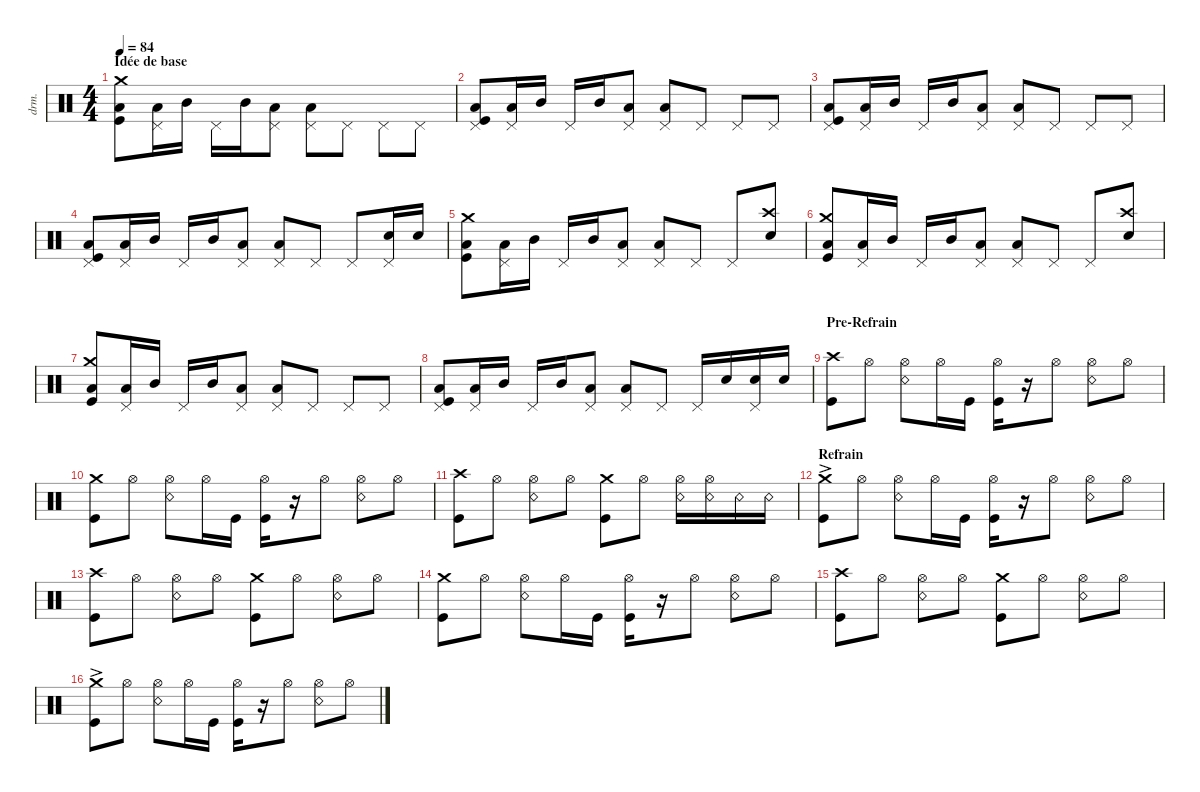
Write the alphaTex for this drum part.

\defaultSystemsLayout 4
\hideDynamics
\bracketExtendMode nobrackets
\otherSystemsTrackNameOrientation horizontal
\track ("Drumkit" "drm.") {instrument percussion}
\staff {score}
\articulation defaults
\ts (4 4)
\section ("" "Idée de base")
\tempo 84
\clef neutral
\ks aminor
("Kick (hit)" "Low Tom (hit)" "Crash medium (hit)").8{dy f beam Down} ("Low Tom (hit)" "Pedal Hi-Hat (hit)").16{beam Down} "Mid Tom (hit)".16{beam Down} "Pedal Hi-Hat (hit)".16{beam Down} "Mid Tom (hit)".16{beam Down} ("Low Tom (hit)" "Pedal Hi-Hat (hit)").8{beam Down} ("Low Tom (hit)" "Pedal Hi-Hat (hit)").8{beam Down} "Pedal Hi-Hat (hit)".8{beam Down} "Pedal Hi-Hat (hit)".8{beam Down} "Pedal Hi-Hat (hit)".8{beam Down} |
("Kick (hit)" "Low Tom (hit)" "Pedal Hi-Hat (hit)").8{beam Up} ("Low Tom (hit)" "Pedal Hi-Hat (hit)").16{beam Up} "Mid Tom (hit)".16{beam Up} "Pedal Hi-Hat (hit)".16{beam Up} "Mid Tom (hit)".16{beam Up} ("Low Tom (hit)" "Pedal Hi-Hat (hit)").8{beam Up} ("Low Tom (hit)" "Pedal Hi-Hat (hit)").8{beam Up} "Pedal Hi-Hat (hit)".8{beam Up} "Pedal Hi-Hat (hit)".8{beam Up} "Pedal Hi-Hat (hit)".8{beam Up} |
("Kick (hit)" "Low Tom (hit)" "Pedal Hi-Hat (hit)").8{beam Up} ("Low Tom (hit)" "Pedal Hi-Hat (hit)").16{beam Up} "Mid Tom (hit)".16{beam Up} "Pedal Hi-Hat (hit)".16{beam Up} "Mid Tom (hit)".16{beam Up} ("Low Tom (hit)" "Pedal Hi-Hat (hit)").8{beam Up} ("Low Tom (hit)" "Pedal Hi-Hat (hit)").8{beam Up} "Pedal Hi-Hat (hit)".8{beam Up} "Pedal Hi-Hat (hit)".8{beam Up} "Pedal Hi-Hat (hit)".8{beam Up} |
("Kick (hit)" "Low Tom (hit)" "Pedal Hi-Hat (hit)").8{beam Up} ("Low Tom (hit)" "Pedal Hi-Hat (hit)").16{beam Up} "Mid Tom (hit)".16{beam Up} "Pedal Hi-Hat (hit)".16{beam Up} "Mid Tom (hit)".16{beam Up} ("Low Tom (hit)" "Pedal Hi-Hat (hit)").8{beam Up} ("Low Tom (hit)" "Pedal Hi-Hat (hit)").8{beam Up} "Pedal Hi-Hat (hit)".8{beam Up} "Pedal Hi-Hat (hit)".8{beam Up} ("Pedal Hi-Hat (hit)" "Snare (hit) 2").16{beam Up} "Snare (hit) 2".16{beam Up} |
("Kick (hit)" "Low Tom (hit)" "Crash medium (hit)").8{beam Down} ("Low Tom (hit)" "Pedal Hi-Hat (hit)").16{beam Down} "Mid Tom (hit)".16{beam Down} "Pedal Hi-Hat (hit)".16{beam Up} "Mid Tom (hit)".16{beam Up} ("Low Tom (hit)" "Pedal Hi-Hat (hit)").8{beam Up} ("Low Tom (hit)" "Pedal Hi-Hat (hit)").8{beam Up} "Pedal Hi-Hat (hit)".8{beam Up} "Pedal Hi-Hat (hit)".8{beam Up} ("Crash high (hit)" "Snare (hit) 2").8{beam Up} |
("Kick (hit)" "Low Tom (hit)" "Crash medium (hit)").8{beam Up} ("Low Tom (hit)" "Pedal Hi-Hat (hit)").16{beam Up} "Mid Tom (hit)".16{beam Up} "Pedal Hi-Hat (hit)".16{beam Up} "Mid Tom (hit)".16{beam Up} ("Low Tom (hit)" "Pedal Hi-Hat (hit)").8{beam Up} ("Low Tom (hit)" "Pedal Hi-Hat (hit)").8{beam Up} "Pedal Hi-Hat (hit)".8{beam Up} "Pedal Hi-Hat (hit)".8{beam Up} ("Crash high (hit)" "Snare (hit) 2").8{beam Up} |
("Kick (hit)" "Low Tom (hit)" "Crash medium (hit)").8{beam Up} ("Low Tom (hit)" "Pedal Hi-Hat (hit)").16{beam Up} "Mid Tom (hit)".16{beam Up} "Pedal Hi-Hat (hit)".16{beam Up} "Mid Tom (hit)".16{beam Up} ("Low Tom (hit)" "Pedal Hi-Hat (hit)").8{beam Up} ("Low Tom (hit)" "Pedal Hi-Hat (hit)").8{beam Up} "Pedal Hi-Hat (hit)".8{beam Up} "Pedal Hi-Hat (hit)".8{beam Up} "Pedal Hi-Hat (hit)".8{beam Up} |
("Kick (hit)" "Low Tom (hit)" "Pedal Hi-Hat (hit)").8{beam Up} ("Low Tom (hit)" "Pedal Hi-Hat (hit)").16{beam Up} "Mid Tom (hit)".16{beam Up} "Pedal Hi-Hat (hit)".16{beam Up} "Mid Tom (hit)".16{beam Up} ("Low Tom (hit)" "Pedal Hi-Hat (hit)").8{beam Up} ("Low Tom (hit)" "Pedal Hi-Hat (hit)").8{beam Up} "Pedal Hi-Hat (hit)".8{beam Up} "Pedal Hi-Hat (hit)".16{beam Up} "Snare (hit) 2".16{beam Up} ("Pedal Hi-Hat (hit)" "Snare (hit) 2").16{beam Up} "Snare (hit) 2".16{beam Up} |
\section ("" "Pre-Refrain")
("Kick (hit)" "Crash high (hit)").8{beam Down} "Hi-Hat (open)".8{beam Down} ("Hi-Hat (open)" "Snare (rim shot)").8{beam Down} "Hi-Hat (open)".16{beam Down} "Kick (hit)".16{beam Down} ("Hi-Hat (open)" "Kick (hit)").16{beam Down} r.16{beam Down} "Hi-Hat (open)".8{beam Down} ("Hi-Hat (open)" "Snare (rim shot)").8{beam Down} "Hi-Hat (open)".8{beam Down} |
("Kick (hit)" "Crash medium (hit)").8{beam Down} "Hi-Hat (open)".8{beam Down} ("Hi-Hat (open)" "Snare (rim shot)").8{beam Down} "Hi-Hat (open)".16{beam Down} "Kick (hit)".16{beam Down} ("Hi-Hat (open)" "Kick (hit)").16{beam Down} r.16{beam Down} "Hi-Hat (open)".8{beam Down} ("Hi-Hat (open)" "Snare (rim shot)").8{beam Down} "Hi-Hat (open)".8{beam Down} |
("Kick (hit)" "Crash high (hit)").8{beam Down} "Hi-Hat (open)".8{beam Down} ("Snare (rim shot)" "Hi-Hat (open)").8{beam Down} "Hi-Hat (open)".8{beam Down} ("Crash medium (hit)" "Kick (hit)").8{beam Down} "Hi-Hat (open)".8{beam Down} ("Hi-Hat (open)" "Snare (rim shot)").16{beam Down} ("Hi-Hat (open)" "Snare (rim shot)").16{beam Down} "Snare (rim shot)".16{beam Down} "Snare (rim shot)".16{beam Down} |
\section ("" "Refrain")
("Kick (hit)" "Crash medium (hit)"{ac}).8{beam Down} "Hi-Hat (open)".8{beam Down} ("Hi-Hat (open)" "Snare (rim shot)").8{beam Down} "Hi-Hat (open)".16{beam Down} "Kick (hit)".16{beam Down} ("Hi-Hat (open)" "Kick (hit)").16{beam Down} r.16{beam Down} "Hi-Hat (open)".8{beam Down} ("Hi-Hat (open)" "Snare (rim shot)").8{beam Down} "Hi-Hat (open)".8{beam Down} |
("Kick (hit)" "Crash high (hit)").8{beam Down} "Hi-Hat (open)".8{beam Down} ("Snare (rim shot)" "Hi-Hat (open)").8{beam Down} "Hi-Hat (open)".8{beam Down} ("Crash medium (hit)" "Kick (hit)").8{beam Down} "Hi-Hat (open)".8{beam Down} ("Hi-Hat (open)" "Snare (rim shot)").8{beam Down} "Hi-Hat (open)".8{beam Down} |
("Kick (hit)" "Crash medium (hit)").8{beam Down} "Hi-Hat (open)".8{beam Down} ("Hi-Hat (open)" "Snare (rim shot)").8{beam Down} "Hi-Hat (open)".16{beam Down} "Kick (hit)".16{beam Down} ("Hi-Hat (open)" "Kick (hit)").16{beam Down} r.16{beam Down} "Hi-Hat (open)".8{beam Down} ("Hi-Hat (open)" "Snare (rim shot)").8{beam Down} "Hi-Hat (open)".8{beam Down} |
("Kick (hit)" "Crash high (hit)").8{beam Down} "Hi-Hat (open)".8{beam Down} ("Snare (rim shot)" "Hi-Hat (open)").8{beam Down} "Hi-Hat (open)".8{beam Down} ("Crash medium (hit)" "Kick (hit)").8{beam Down} "Hi-Hat (open)".8{beam Down} ("Snare (rim shot)" "Hi-Hat (open)").8{beam Down} "Hi-Hat (open)".8{beam Down} |
("Kick (hit)" "Crash medium (hit)"{ac}).8{beam Down} "Hi-Hat (open)".8{beam Down} ("Hi-Hat (open)" "Snare (rim shot)").8{beam Down} "Hi-Hat (open)".16{beam Down} "Kick (hit)".16{beam Down} ("Hi-Hat (open)" "Kick (hit)").16{beam Down} r.16{beam Down} "Hi-Hat (open)".8{beam Down} ("Hi-Hat (open)" "Snare (rim shot)").8{beam Down} "Hi-Hat (open)".8{beam Down}
